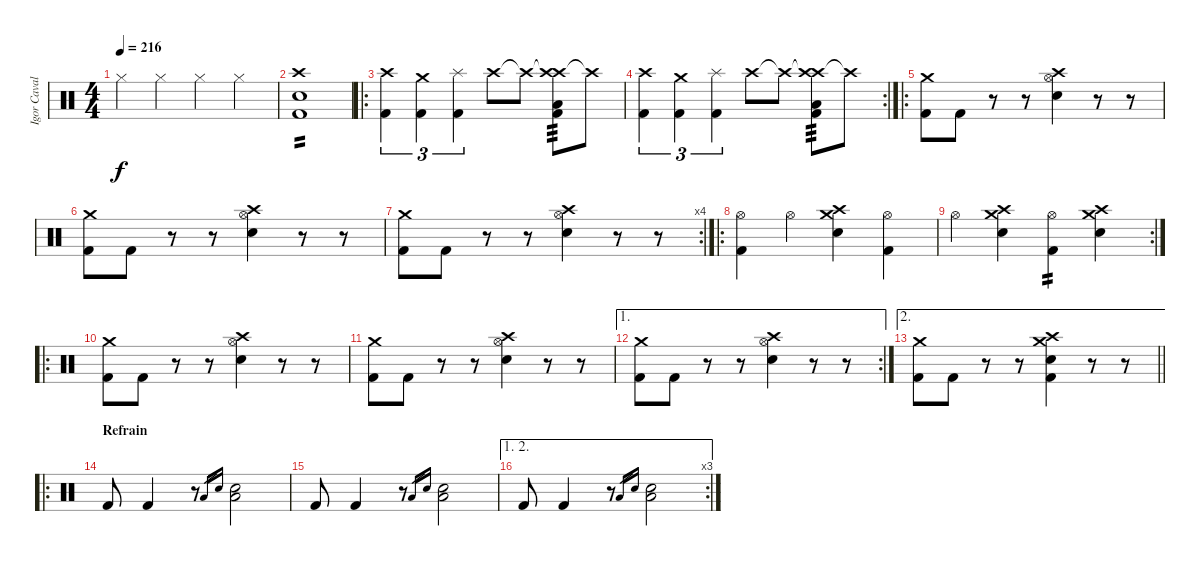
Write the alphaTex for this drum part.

\track ("Igor Cavalera" "Igor Caval") {instrument percussion}
\staff {score}
\articulation defaults
\ts (4 4)
\tempo 216
\clef neutral
\ks c "Hi-Hat (closed)".4{dy f} "Hi-Hat (closed)".4 "Hi-Hat (closed)".4 "Hi-Hat (closed)".4
|
("Crash high (hit)" "Snare (hit) 2" "Kick (hit) 2").1{tp 2} |
\ro
("Crash high (hit)" "Kick (hit) 2").4{tu (3 2)} ("Crash medium (hit)" "Kick (hit) 2").4{tu (3 2)} ("Splash (hit)" "Kick (hit) 2").4{tu (3 2)} "Crash high (hit)".8 "Crash high (hit)"{t}.8 ("Crash high (hit)"{t} "Low Floor Tom (hit)" "Crash high (hit)" "Kick (hit) 2").8{tp 3} "Crash high (hit)"{t}.8 |
\rc 2
("Crash high (hit)" "Kick (hit) 2").4{tu (3 2)} ("Crash medium (hit)" "Kick (hit) 2").4{tu (3 2)} ("Splash (hit)" "Kick (hit) 2").4{tu (3 2)} "Crash high (hit)".8 "Crash high (hit)"{t}.8 ("Crash high (hit)"{t} "Low Floor Tom (hit)" "Crash high (hit)" "Kick (hit) 2").8{tp 3} "Crash high (hit)"{t}.8 |
\ro
("Crash medium (hit)" "Kick (hit) 2").8 "Kick (hit) 2".8 r.8 r.8 ("Hi-Hat (open)" "Snare (hit) 2" "Crash high (hit)").4 r.8 r.8 |
("Crash medium (hit)" "Kick (hit) 2").8 "Kick (hit) 2".8 r.8 r.8 ("Hi-Hat (open)" "Snare (hit) 2" "Crash high (hit)").4 r.8 r.8 |
\rc 4
("Crash medium (hit)" "Kick (hit) 2").8 "Kick (hit) 2".8 r.8 r.8 ("Hi-Hat (open)" "Snare (hit) 2" "Crash high (hit)").4 r.8 r.8 |
\ro
("Kick (hit) 2" "Hi-Hat (open)").4 "Hi-Hat (open)".4 ("Snare (hit) 2" "Crash high (hit)" "Crash medium (hit)").4 ("Kick (hit) 2" "Hi-Hat (open)").4 |
\rc 2 "Hi-Hat (open)".4
("Snare (hit) 2" "Crash high (hit)" "Crash medium (hit)").4 ("Kick (hit) 2" "Hi-Hat (open)").4{tp 2} ("Snare (hit) 2" "Crash high (hit)" "Crash medium (hit)").4 |
\ro
("Crash medium (hit)" "Kick (hit) 2").8 "Kick (hit) 2".8 r.8 r.8 ("Hi-Hat (open)" "Snare (hit) 2" "Crash high (hit)").4 r.8 r.8 |
("Crash medium (hit)" "Kick (hit) 2").8 "Kick (hit) 2".8 r.8 r.8 ("Hi-Hat (open)" "Snare (hit) 2" "Crash high (hit)").4 r.8 r.8 |
\ae 1
\rc 2
("Crash medium (hit)" "Kick (hit) 2").8 "Kick (hit) 2".8 r.8 r.8 ("Hi-Hat (open)" "Snare (hit) 2" "Crash high (hit)").4 r.8 r.8 |
\ae 2
\barLineRight lightlight
("Crash medium (hit)" "Kick (hit) 2").8 "Kick (hit) 2".8 r.8 r.8 ("Kick (hit) 2" "Crash medium (hit)" "Crash high (hit)" "Snare (hit) 2").4 r.8 r.8 |
\ro
\section ("" "Refrain")
"Kick (hit) 2".8 "Kick (hit) 2".4 r.8 "Low Floor Tom (hit)".16{gr} "Snare (hit) 2".16{gr} ("Low Floor Tom (hit)" "Snare (hit) 2").2 |
"Kick (hit) 2".8 "Kick (hit) 2".4 r.8 "Low Floor Tom (hit)".16{gr} "Snare (hit) 2".16{gr} ("Low Floor Tom (hit)" "Snare (hit) 2").2 |
\ae (1 2)
\rc 3 "Kick (hit) 2".8 "Kick (hit) 2".4
r.8 "Low Floor Tom (hit)".16{gr} "Snare (hit) 2".16{gr} ("Low Floor Tom (hit)" "Snare (hit) 2").2
